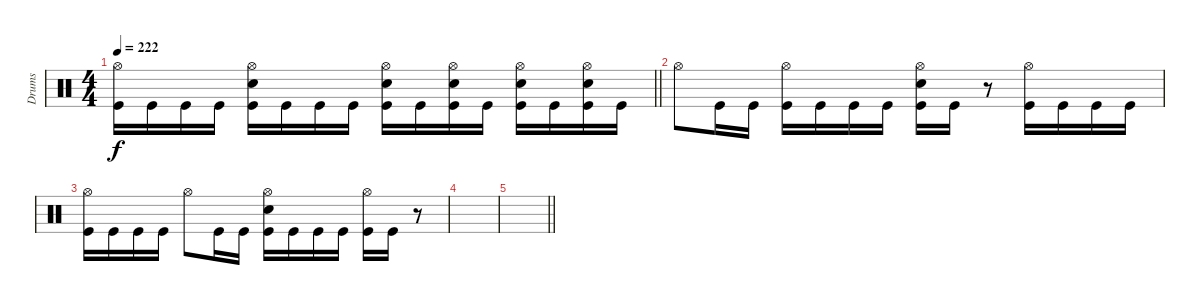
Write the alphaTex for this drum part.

\track ("Drums" "Drums") {instrument percussion}
\staff
\articulation defaults
\ts (4 4)
\tempo 222
\clef neutral
\barLineRight lightlight
\ks c
("Hi-Hat (open)" "Kick (hit)").16{dy f} "Kick (hit)".16 "Kick (hit)".16 "Kick (hit)".16 ("Hi-Hat (open)" "Electric Snare (hit)" "Kick (hit)").16 "Kick (hit)".16 "Kick (hit)".16 "Kick (hit)".16 ("Hi-Hat (open)" "Electric Snare (hit)" "Kick (hit)").16 "Kick (hit)".16 ("Hi-Hat (open)" "Electric Snare (hit)" "Kick (hit)").16 "Kick (hit)".16 ("Hi-Hat (open)" "Electric Snare (hit)" "Kick (hit)").16 "Kick (hit)".16 ("Hi-Hat (open)" "Electric Snare (hit)" "Kick (hit)").16 "Kick (hit)".16 |
"Hi-Hat (open)".8 "Kick (hit)".16 "Kick (hit)".16 ("Hi-Hat (open)" "Kick (hit)").16 "Kick (hit)".16 "Kick (hit)".16 "Kick (hit)".16 ("Hi-Hat (open)" "Electric Snare (hit)" "Kick (hit)").16 "Kick (hit)".16 r.8 ("Hi-Hat (open)" "Kick (hit)").16 "Kick (hit)".16 "Kick (hit)".16 "Kick (hit)".16 |
("Hi-Hat (open)" "Kick (hit)").16 "Kick (hit)".16 "Kick (hit)".16 "Kick (hit)".16 "Hi-Hat (open)".8 "Kick (hit)".16 "Kick (hit)".16 ("Hi-Hat (open)" "Electric Snare (hit)" "Kick (hit)").16 "Kick (hit)".16 "Kick (hit)".16 "Kick (hit)".16 ("Hi-Hat (open)" "Kick (hit)").16 "Kick (hit)".16 r.8 |
|
\barLineRight lightlight
